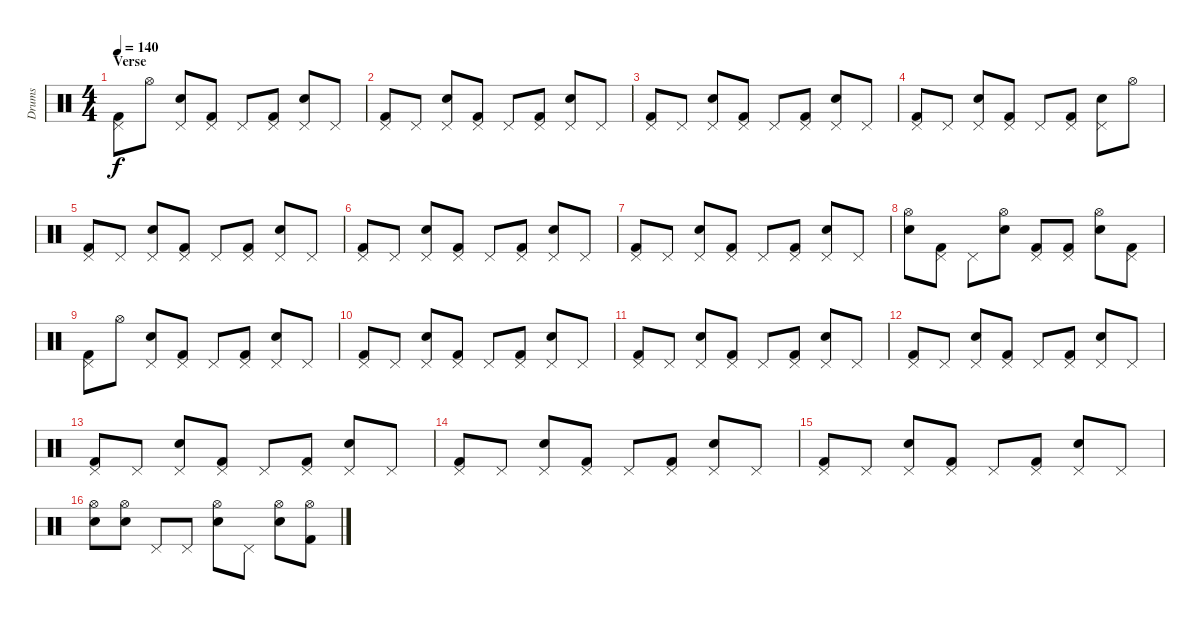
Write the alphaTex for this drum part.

\track ("Drums" "Drums") {instrument percussion}
\staff {score}
\articulation defaults
\ts (4 4)
\section ("" "Verse")
\tempo 140
\clef neutral
\ks c
("Pedal Hi-Hat (hit)" "Kick (hit) 2").8{dy f} "Hi-Hat (open)".8 ("Pedal Hi-Hat (hit)" "Electric Snare (hit)").8 ("Pedal Hi-Hat (hit)" "Kick (hit) 2").8 "Pedal Hi-Hat (hit)".8 ("Pedal Hi-Hat (hit)" "Kick (hit) 2").8 ("Pedal Hi-Hat (hit)" "Electric Snare (hit)").8 "Pedal Hi-Hat (hit)".8 |
("Pedal Hi-Hat (hit)" "Kick (hit) 2").8 "Pedal Hi-Hat (hit)".8 ("Pedal Hi-Hat (hit)" "Electric Snare (hit)").8 ("Pedal Hi-Hat (hit)" "Kick (hit) 2").8 "Pedal Hi-Hat (hit)".8 ("Pedal Hi-Hat (hit)" "Kick (hit) 2").8 ("Pedal Hi-Hat (hit)" "Electric Snare (hit)").8 "Pedal Hi-Hat (hit)".8 |
("Pedal Hi-Hat (hit)" "Kick (hit) 2").8 "Pedal Hi-Hat (hit)".8 ("Pedal Hi-Hat (hit)" "Electric Snare (hit)").8 ("Pedal Hi-Hat (hit)" "Kick (hit) 2").8 "Pedal Hi-Hat (hit)".8 ("Pedal Hi-Hat (hit)" "Kick (hit) 2").8 ("Pedal Hi-Hat (hit)" "Electric Snare (hit)").8 "Pedal Hi-Hat (hit)".8 |
("Pedal Hi-Hat (hit)" "Kick (hit) 2").8 "Pedal Hi-Hat (hit)".8 ("Pedal Hi-Hat (hit)" "Electric Snare (hit)").8 ("Pedal Hi-Hat (hit)" "Kick (hit) 2").8 "Pedal Hi-Hat (hit)".8 ("Pedal Hi-Hat (hit)" "Kick (hit) 2").8 ("Pedal Hi-Hat (hit)" "Electric Snare (hit)").8 "Hi-Hat (open)".8 |
("Pedal Hi-Hat (hit)" "Kick (hit) 2").8 "Pedal Hi-Hat (hit)".8 ("Pedal Hi-Hat (hit)" "Electric Snare (hit)").8 ("Pedal Hi-Hat (hit)" "Kick (hit) 2").8 "Pedal Hi-Hat (hit)".8 ("Pedal Hi-Hat (hit)" "Kick (hit) 2").8 ("Pedal Hi-Hat (hit)" "Electric Snare (hit)").8 "Pedal Hi-Hat (hit)".8 |
("Pedal Hi-Hat (hit)" "Kick (hit) 2").8 "Pedal Hi-Hat (hit)".8 ("Pedal Hi-Hat (hit)" "Electric Snare (hit)").8 ("Pedal Hi-Hat (hit)" "Kick (hit) 2").8 "Pedal Hi-Hat (hit)".8 ("Pedal Hi-Hat (hit)" "Kick (hit) 2").8 ("Pedal Hi-Hat (hit)" "Electric Snare (hit)").8 "Pedal Hi-Hat (hit)".8 |
("Pedal Hi-Hat (hit)" "Kick (hit) 2").8 "Pedal Hi-Hat (hit)".8 ("Pedal Hi-Hat (hit)" "Electric Snare (hit)").8 ("Pedal Hi-Hat (hit)" "Kick (hit) 2").8 "Pedal Hi-Hat (hit)".8 ("Pedal Hi-Hat (hit)" "Kick (hit) 2").8 ("Pedal Hi-Hat (hit)" "Electric Snare (hit)").8 "Pedal Hi-Hat (hit)".8 |
("Hi-Hat (open)" "Electric Snare (hit)").8 ("Pedal Hi-Hat (hit)" "Kick (hit) 2").8 "Pedal Hi-Hat (hit)".8 ("Hi-Hat (open)" "Electric Snare (hit)").8 ("Pedal Hi-Hat (hit)" "Kick (hit) 2").8 ("Pedal Hi-Hat (hit)" "Kick (hit) 2").8 ("Hi-Hat (open)" "Electric Snare (hit)").8 ("Pedal Hi-Hat (hit)" "Kick (hit) 2").8 |
("Pedal Hi-Hat (hit)" "Kick (hit) 2").8 "Hi-Hat (open)".8 ("Pedal Hi-Hat (hit)" "Electric Snare (hit)").8 ("Pedal Hi-Hat (hit)" "Kick (hit) 2").8 "Pedal Hi-Hat (hit)".8 ("Pedal Hi-Hat (hit)" "Kick (hit) 2").8 ("Pedal Hi-Hat (hit)" "Electric Snare (hit)").8 "Pedal Hi-Hat (hit)".8 |
("Pedal Hi-Hat (hit)" "Kick (hit) 2").8 "Pedal Hi-Hat (hit)".8 ("Pedal Hi-Hat (hit)" "Electric Snare (hit)").8 ("Pedal Hi-Hat (hit)" "Kick (hit) 2").8 "Pedal Hi-Hat (hit)".8 ("Pedal Hi-Hat (hit)" "Kick (hit) 2").8 ("Pedal Hi-Hat (hit)" "Electric Snare (hit)").8 "Pedal Hi-Hat (hit)".8 |
("Pedal Hi-Hat (hit)" "Kick (hit) 2").8 "Pedal Hi-Hat (hit)".8 ("Pedal Hi-Hat (hit)" "Electric Snare (hit)").8 ("Pedal Hi-Hat (hit)" "Kick (hit) 2").8 "Pedal Hi-Hat (hit)".8 ("Pedal Hi-Hat (hit)" "Kick (hit) 2").8 ("Pedal Hi-Hat (hit)" "Electric Snare (hit)").8 "Pedal Hi-Hat (hit)".8 |
("Pedal Hi-Hat (hit)" "Kick (hit) 2").8 "Pedal Hi-Hat (hit)".8 ("Pedal Hi-Hat (hit)" "Electric Snare (hit)").8 ("Pedal Hi-Hat (hit)" "Kick (hit) 2").8 "Pedal Hi-Hat (hit)".8 ("Pedal Hi-Hat (hit)" "Kick (hit) 2").8 ("Pedal Hi-Hat (hit)" "Electric Snare (hit)").8 "Pedal Hi-Hat (hit)".8 |
("Pedal Hi-Hat (hit)" "Kick (hit) 2").8 "Pedal Hi-Hat (hit)".8 ("Pedal Hi-Hat (hit)" "Electric Snare (hit)").8 ("Pedal Hi-Hat (hit)" "Kick (hit) 2").8 "Pedal Hi-Hat (hit)".8 ("Pedal Hi-Hat (hit)" "Kick (hit) 2").8 ("Pedal Hi-Hat (hit)" "Electric Snare (hit)").8 "Pedal Hi-Hat (hit)".8 |
("Pedal Hi-Hat (hit)" "Kick (hit) 2").8 "Pedal Hi-Hat (hit)".8 ("Pedal Hi-Hat (hit)" "Electric Snare (hit)").8 ("Pedal Hi-Hat (hit)" "Kick (hit) 2").8 "Pedal Hi-Hat (hit)".8 ("Pedal Hi-Hat (hit)" "Kick (hit) 2").8 ("Pedal Hi-Hat (hit)" "Electric Snare (hit)").8 "Pedal Hi-Hat (hit)".8 |
("Pedal Hi-Hat (hit)" "Kick (hit) 2").8 "Pedal Hi-Hat (hit)".8 ("Pedal Hi-Hat (hit)" "Electric Snare (hit)").8 ("Pedal Hi-Hat (hit)" "Kick (hit) 2").8 "Pedal Hi-Hat (hit)".8 ("Pedal Hi-Hat (hit)" "Kick (hit) 2").8 ("Pedal Hi-Hat (hit)" "Electric Snare (hit)").8 "Pedal Hi-Hat (hit)".8 |
("Hi-Hat (open)" "Electric Snare (hit)").8 ("Hi-Hat (open)" "Electric Snare (hit)").8 "Pedal Hi-Hat (hit)".8 "Pedal Hi-Hat (hit)".8 ("Hi-Hat (open)" "Electric Snare (hit)").8 "Pedal Hi-Hat (hit)".8 ("Hi-Hat (open)" "Electric Snare (hit)").8 ("Hi-Hat (open)" "Kick (hit) 2").8
